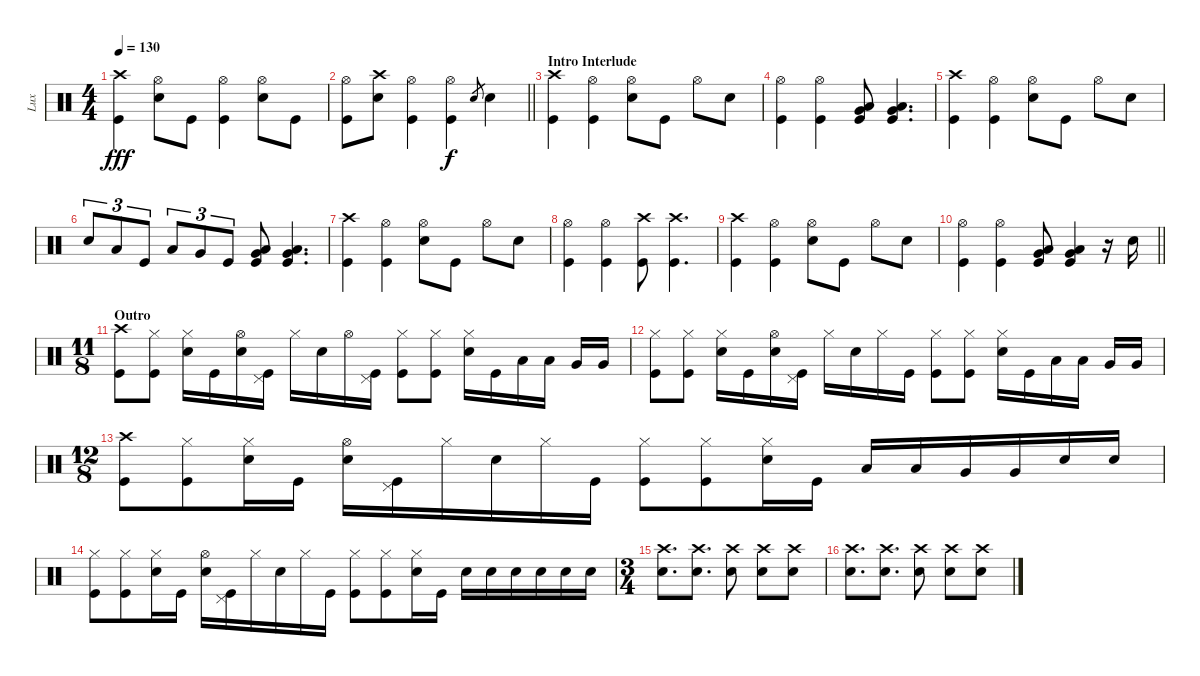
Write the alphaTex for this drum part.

\track ("Lux" "Lux") {instrument percussion}
\staff {score}
\articulation defaults
\ts (4 4)
\tempo 130
\clef neutral
\ks c
("Crash high (hit)" "Kick (hit)").4{dy fff} ("Hi-Hat (open)" "Snare (hit) 2").8 "Kick (hit)".8 ("Hi-Hat (open)" "Kick (hit)").4 ("Hi-Hat (open)" "Snare (hit) 2").8 "Kick (hit)".8 |
\barLineRight lightlight
("Hi-Hat (open)" "Kick (hit)").8 ("Crash high (hit)" "Snare (hit) 2").8 ("Hi-Hat (open)" "Kick (hit)").4 ("Hi-Hat (open)" "Kick (hit)").4{dy f} "Snare (hit) 2".8{gr} "Snare (hit) 2".4 |
\section ("" "Intro Interlude")
("Crash high (hit)" "Kick (hit)").4 ("Hi-Hat (open)" "Kick (hit)").4 ("Hi-Hat (open)" "Snare (hit) 2").8 "Kick (hit)".8 "Hi-Hat (open)".8 "Snare (hit) 2".8 |
("Hi-Hat (open)" "Kick (hit)").4 ("Hi-Hat (open)" "Kick (hit)").4 ("Low Floor Tom (hit)" "Very Low Tom (hit)" "Kick (hit)").8 ("Low Floor Tom (hit)" "Very Low Tom (hit)" "Kick (hit)").4{d} |
("Crash high (hit)" "Kick (hit)").4 ("Hi-Hat (open)" "Kick (hit)").4 ("Hi-Hat (open)" "Snare (hit) 2").8 "Kick (hit)".8 "Hi-Hat (open)".8 "Snare (hit) 2".8 |
"Snare (hit) 2".8{tu (3 2)} "Low Tom (hit)".8{tu (3 2)} "Kick (hit)".8{tu (3 2)} "Low Tom (hit)".8{tu (3 2)} "Very Low Tom (hit)".8{tu (3 2)} "Kick (hit)".8{tu (3 2)} ("Low Floor Tom (hit)" "Very Low Tom (hit)" "Kick (hit)").8 ("Low Floor Tom (hit)" "Very Low Tom (hit)" "Kick (hit)").4{d} |
("Crash high (hit)" "Kick (hit)").4 ("Hi-Hat (open)" "Kick (hit)").4 ("Hi-Hat (open)" "Snare (hit) 2").8 "Kick (hit)".8 "Hi-Hat (open)".8 "Snare (hit) 2".8 |
("Hi-Hat (open)" "Kick (hit)").4 ("Hi-Hat (open)" "Kick (hit)").4 ("Crash high (hit)" "Kick (hit)").8 ("Crash high (hit)" "Kick (hit)").4{d} |
("Crash high (hit)" "Kick (hit)").4 ("Hi-Hat (open)" "Kick (hit)").4 ("Hi-Hat (open)" "Snare (hit) 2").8 "Kick (hit)".8 "Hi-Hat (open)".8 "Snare (hit) 2".8 |
\barLineRight lightlight
("Hi-Hat (open)" "Kick (hit)").4 ("Hi-Hat (open)" "Kick (hit)").4 ("Low Floor Tom (hit)" "Very Low Tom (hit)" "Kick (hit)").8 ("Low Floor Tom (hit)" "Very Low Tom (hit)" "Kick (hit)").4 r.16 "Snare (hit) 2".16 |
\ts (11 8)
\section ("" "Outro")
("Crash high (hit)" "Kick (hit)").8 ("Hi-Hat (closed)" "Kick (hit)").8 ("Hi-Hat (closed)" "Snare (hit) 2").16 "Kick (hit)".16 ("Hi-Hat (open)" "Snare (hit) 2").16 ("Pedal Hi-Hat (hit)" "Kick (hit)").16 "Hi-Hat (closed)".16 "Snare (hit) 2".16 "Hi-Hat (open)".16 ("Pedal Hi-Hat (hit)" "Kick (hit)").16 ("Hi-Hat (closed)" "Kick (hit)").8 ("Hi-Hat (closed)" "Kick (hit)").8 ("Hi-Hat (closed)" "Snare (hit) 2").16 "Kick (hit)".16 "Low Tom (hit)".16 "Low Tom (hit)".16 "Very Low Tom (hit)".16 "Very Low Tom (hit)".16 |
("Hi-Hat (closed)" "Kick (hit)").8 ("Hi-Hat (closed)" "Kick (hit)").8 ("Hi-Hat (closed)" "Snare (hit) 2").16 "Kick (hit)".16 ("Hi-Hat (open)" "Snare (hit) 2").16 ("Pedal Hi-Hat (hit)" "Kick (hit)").16 "Hi-Hat (closed)".16 "Snare (hit) 2".16 "Hi-Hat (closed)".16 "Kick (hit)".16 ("Hi-Hat (closed)" "Kick (hit)").8 ("Hi-Hat (closed)" "Kick (hit)").8 ("Hi-Hat (closed)" "Snare (hit) 2").16 "Kick (hit)".16 "Low Tom (hit)".16 "Low Tom (hit)".16 "Very Low Tom (hit)".16 "Very Low Tom (hit)".16 |
\ts (12 8)
("Crash high (hit)" "Kick (hit)").8 ("Hi-Hat (closed)" "Kick (hit)").8 ("Hi-Hat (closed)" "Snare (hit) 2").16 "Kick (hit)".16 ("Hi-Hat (open)" "Snare (hit) 2").16 ("Pedal Hi-Hat (hit)" "Kick (hit)").16 "Hi-Hat (closed)".16 "Snare (hit) 2".16 "Hi-Hat (closed)".16 "Kick (hit)".16 ("Hi-Hat (closed)" "Kick (hit)").8 ("Hi-Hat (closed)" "Kick (hit)").8 ("Hi-Hat (closed)" "Snare (hit) 2").16 "Kick (hit)".16 "Low Tom (hit)".16 "Low Tom (hit)".16 "Very Low Tom (hit)".16 "Very Low Tom (hit)".16 "Snare (hit) 2".16 "Snare (hit) 2".16 |
("Hi-Hat (closed)" "Kick (hit)").8 ("Hi-Hat (closed)" "Kick (hit)").8 ("Hi-Hat (closed)" "Snare (hit) 2").16 "Kick (hit)".16 ("Hi-Hat (open)" "Snare (hit) 2").16 ("Pedal Hi-Hat (hit)" "Kick (hit)").16 "Hi-Hat (closed)".16 "Snare (hit) 2".16 "Hi-Hat (closed)".16 "Kick (hit)".16 ("Hi-Hat (closed)" "Kick (hit)").8 ("Hi-Hat (closed)" "Kick (hit)").8 ("Hi-Hat (closed)" "Snare (hit) 2").16 "Kick (hit)".16 "Snare (hit) 2".16 "Snare (hit) 2".16 "Snare (hit) 2".16 "Snare (hit) 2".16 "Snare (hit) 2".16 "Snare (hit) 2".16 |
\ts (3 4)
("Crash high (hit)" "Snare (hit) 2").8{d} ("Crash high (hit)" "Snare (hit) 2").8{d} ("Crash high (hit)" "Snare (hit) 2").8 ("Crash high (hit)" "Snare (hit) 2").8 ("Crash high (hit)" "Snare (hit) 2").8 |
("Crash high (hit)" "Snare (hit) 2").8{d} ("Crash high (hit)" "Snare (hit) 2").8{d} ("Crash high (hit)" "Snare (hit) 2").8 ("Crash high (hit)" "Snare (hit) 2").8 ("Crash high (hit)" "Snare (hit) 2").8
